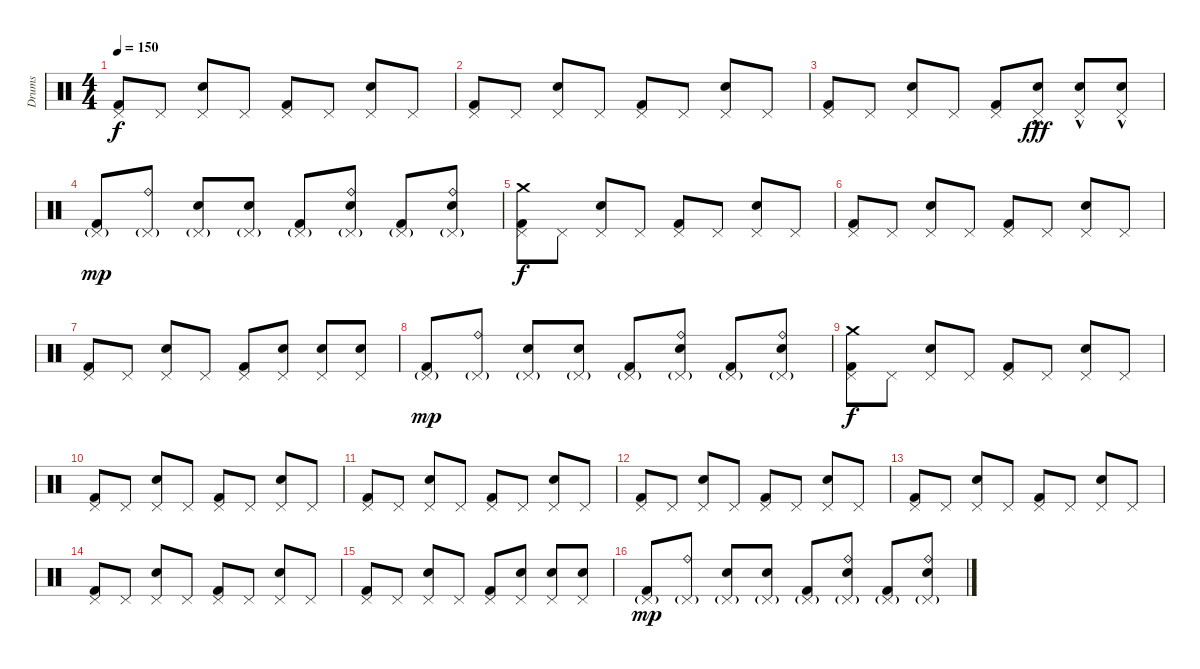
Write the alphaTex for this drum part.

\track ("Drums" "Drums") {instrument percussion}
\staff {score}
\articulation defaults
\ts (4 4)
\tempo 150
\clef neutral
\ks c
("Pedal Hi-Hat (hit)" "Kick (hit) 2").8{dy f} "Pedal Hi-Hat (hit)".8 ("Pedal Hi-Hat (hit)" "Electric Snare (hit)").8 "Pedal Hi-Hat (hit)".8 ("Pedal Hi-Hat (hit)" "Kick (hit) 2").8 "Pedal Hi-Hat (hit)".8 ("Pedal Hi-Hat (hit)" "Electric Snare (hit)").8 "Pedal Hi-Hat (hit)".8 |
("Pedal Hi-Hat (hit)" "Kick (hit) 2").8 "Pedal Hi-Hat (hit)".8 ("Pedal Hi-Hat (hit)" "Electric Snare (hit)").8 "Pedal Hi-Hat (hit)".8 ("Pedal Hi-Hat (hit)" "Kick (hit) 2").8 "Pedal Hi-Hat (hit)".8 ("Pedal Hi-Hat (hit)" "Electric Snare (hit)").8 "Pedal Hi-Hat (hit)".8 |
("Pedal Hi-Hat (hit)" "Kick (hit) 2").8 "Pedal Hi-Hat (hit)".8 ("Pedal Hi-Hat (hit)" "Electric Snare (hit)").8 "Pedal Hi-Hat (hit)".8 ("Pedal Hi-Hat (hit)" "Kick (hit) 2").8 ("Pedal Hi-Hat (hit)"{hac} "Electric Snare (hit)").8{dy fff} ("Pedal Hi-Hat (hit)"{hac} "Electric Snare (hit)").8 ("Pedal Hi-Hat (hit)"{hac} "Electric Snare (hit)").8 |
("Pedal Hi-Hat (hit)"{g} "Kick (hit) 2").8{dy mp} ("Ride (bell)" "Pedal Hi-Hat (hit)"{g}).8 ("Pedal Hi-Hat (hit)"{g} "Electric Snare (hit)").8 ("Pedal Hi-Hat (hit)"{g} "Electric Snare (hit)").8 ("Pedal Hi-Hat (hit)"{g} "Kick (hit) 2").8 ("Ride (bell)" "Pedal Hi-Hat (hit)"{g} "Electric Snare (hit)").8 ("Pedal Hi-Hat (hit)"{g} "Kick (hit) 2").8 ("Ride (bell)" "Pedal Hi-Hat (hit)"{g} "Electric Snare (hit)").8 |
("Crash medium (hit)" "Pedal Hi-Hat (hit)" "Kick (hit) 2").8{dy f} "Pedal Hi-Hat (hit)".8 ("Pedal Hi-Hat (hit)" "Electric Snare (hit)").8 "Pedal Hi-Hat (hit)".8 ("Pedal Hi-Hat (hit)" "Kick (hit) 2").8 "Pedal Hi-Hat (hit)".8 ("Pedal Hi-Hat (hit)" "Electric Snare (hit)").8 "Pedal Hi-Hat (hit)".8 |
("Pedal Hi-Hat (hit)" "Kick (hit) 2").8 "Pedal Hi-Hat (hit)".8 ("Pedal Hi-Hat (hit)" "Electric Snare (hit)").8 "Pedal Hi-Hat (hit)".8 ("Pedal Hi-Hat (hit)" "Kick (hit) 2").8 "Pedal Hi-Hat (hit)".8 ("Pedal Hi-Hat (hit)" "Electric Snare (hit)").8 "Pedal Hi-Hat (hit)".8 |
("Pedal Hi-Hat (hit)" "Kick (hit) 2").8 "Pedal Hi-Hat (hit)".8 ("Pedal Hi-Hat (hit)" "Electric Snare (hit)").8 "Pedal Hi-Hat (hit)".8 ("Pedal Hi-Hat (hit)" "Kick (hit) 2").8 ("Pedal Hi-Hat (hit)" "Electric Snare (hit)").8 ("Pedal Hi-Hat (hit)" "Electric Snare (hit)").8 ("Pedal Hi-Hat (hit)" "Electric Snare (hit)").8 |
("Pedal Hi-Hat (hit)"{g} "Kick (hit) 2").8{dy mp} ("Ride (bell)" "Pedal Hi-Hat (hit)"{g}).8 ("Pedal Hi-Hat (hit)"{g} "Electric Snare (hit)").8 ("Pedal Hi-Hat (hit)"{g} "Electric Snare (hit)").8 ("Pedal Hi-Hat (hit)"{g} "Kick (hit) 2").8 ("Ride (bell)" "Pedal Hi-Hat (hit)"{g} "Electric Snare (hit)").8 ("Pedal Hi-Hat (hit)"{g} "Kick (hit) 2").8 ("Ride (bell)" "Pedal Hi-Hat (hit)"{g} "Electric Snare (hit)").8 |
("Crash medium (hit)" "Pedal Hi-Hat (hit)" "Kick (hit) 2").8{dy f} "Pedal Hi-Hat (hit)".8 ("Pedal Hi-Hat (hit)" "Electric Snare (hit)").8 "Pedal Hi-Hat (hit)".8 ("Pedal Hi-Hat (hit)" "Kick (hit) 2").8 "Pedal Hi-Hat (hit)".8 ("Pedal Hi-Hat (hit)" "Electric Snare (hit)").8 "Pedal Hi-Hat (hit)".8 |
("Pedal Hi-Hat (hit)" "Kick (hit) 2").8 "Pedal Hi-Hat (hit)".8 ("Pedal Hi-Hat (hit)" "Electric Snare (hit)").8 "Pedal Hi-Hat (hit)".8 ("Pedal Hi-Hat (hit)" "Kick (hit) 2").8 "Pedal Hi-Hat (hit)".8 ("Pedal Hi-Hat (hit)" "Electric Snare (hit)").8 "Pedal Hi-Hat (hit)".8 |
("Pedal Hi-Hat (hit)" "Kick (hit) 2").8 "Pedal Hi-Hat (hit)".8 ("Pedal Hi-Hat (hit)" "Electric Snare (hit)").8 "Pedal Hi-Hat (hit)".8 ("Pedal Hi-Hat (hit)" "Kick (hit) 2").8 "Pedal Hi-Hat (hit)".8 ("Pedal Hi-Hat (hit)" "Electric Snare (hit)").8 "Pedal Hi-Hat (hit)".8 |
("Pedal Hi-Hat (hit)" "Kick (hit) 2").8 "Pedal Hi-Hat (hit)".8 ("Pedal Hi-Hat (hit)" "Electric Snare (hit)").8 "Pedal Hi-Hat (hit)".8 ("Pedal Hi-Hat (hit)" "Kick (hit) 2").8 "Pedal Hi-Hat (hit)".8 ("Pedal Hi-Hat (hit)" "Electric Snare (hit)").8 "Pedal Hi-Hat (hit)".8 |
("Pedal Hi-Hat (hit)" "Kick (hit) 2").8 "Pedal Hi-Hat (hit)".8 ("Pedal Hi-Hat (hit)" "Electric Snare (hit)").8 "Pedal Hi-Hat (hit)".8 ("Pedal Hi-Hat (hit)" "Kick (hit) 2").8 "Pedal Hi-Hat (hit)".8 ("Pedal Hi-Hat (hit)" "Electric Snare (hit)").8 "Pedal Hi-Hat (hit)".8 |
("Pedal Hi-Hat (hit)" "Kick (hit) 2").8 "Pedal Hi-Hat (hit)".8 ("Pedal Hi-Hat (hit)" "Electric Snare (hit)").8 "Pedal Hi-Hat (hit)".8 ("Pedal Hi-Hat (hit)" "Kick (hit) 2").8 "Pedal Hi-Hat (hit)".8 ("Pedal Hi-Hat (hit)" "Electric Snare (hit)").8 "Pedal Hi-Hat (hit)".8 |
("Pedal Hi-Hat (hit)" "Kick (hit) 2").8 "Pedal Hi-Hat (hit)".8 ("Pedal Hi-Hat (hit)" "Electric Snare (hit)").8 "Pedal Hi-Hat (hit)".8 ("Pedal Hi-Hat (hit)" "Kick (hit) 2").8 ("Pedal Hi-Hat (hit)" "Electric Snare (hit)").8 ("Pedal Hi-Hat (hit)" "Electric Snare (hit)").8 ("Pedal Hi-Hat (hit)" "Electric Snare (hit)").8 |
("Pedal Hi-Hat (hit)"{g} "Kick (hit) 2").8{dy mp} ("Ride (bell)" "Pedal Hi-Hat (hit)"{g}).8 ("Pedal Hi-Hat (hit)"{g} "Electric Snare (hit)").8 ("Pedal Hi-Hat (hit)"{g} "Electric Snare (hit)").8 ("Pedal Hi-Hat (hit)"{g} "Kick (hit) 2").8 ("Ride (bell)" "Pedal Hi-Hat (hit)"{g} "Electric Snare (hit)").8 ("Pedal Hi-Hat (hit)"{g} "Kick (hit) 2").8 ("Ride (bell)" "Pedal Hi-Hat (hit)"{g} "Electric Snare (hit)").8
